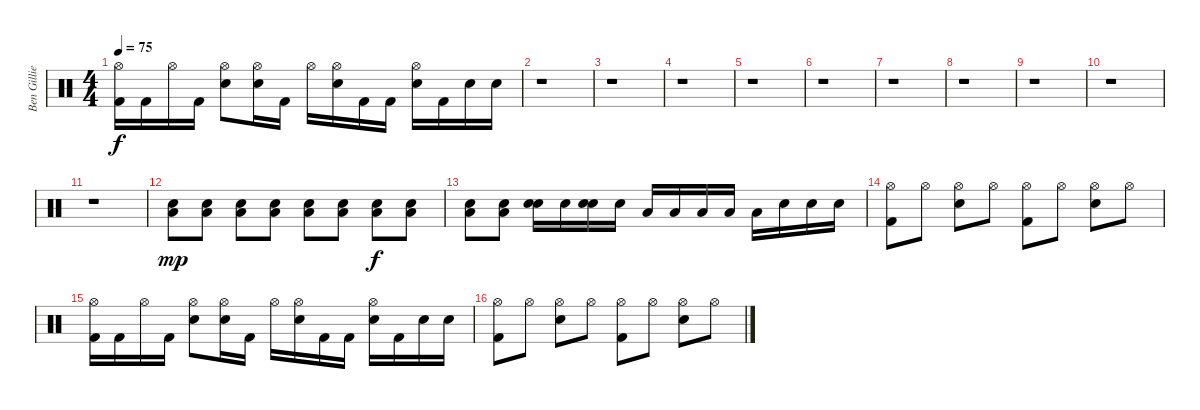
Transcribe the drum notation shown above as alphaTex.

\track ("Ben Gillies" "Ben Gillie") {instrument percussion}
\staff {score}
\articulation defaults
\ts (4 4)
\tempo 75
\clef neutral
\ks c
("Hi-Hat (open)" "Kick (hit) 2").16{dy f} "Kick (hit) 2".16 "Hi-Hat (open)".16 "Kick (hit) 2".16 ("Hi-Hat (open)" "Electric Snare (hit)").8 ("Hi-Hat (open)" "Electric Snare (hit)").16 "Kick (hit) 2".16 "Hi-Hat (open)".16 ("Hi-Hat (open)" "Electric Snare (hit)").16 "Kick (hit) 2".16 "Kick (hit) 2".16 ("Hi-Hat (open)" "Electric Snare (hit)").16 "Kick (hit) 2".16 "Electric Snare (hit)".16 "Electric Snare (hit)".16 |
r.1 |
r.1 |
r.1 |
r.1 |
r.1 |
r.1 |
r.1 |
r.1 |
r.1 |
r.1 |
("Low Floor Tom (hit)" "Electric Snare (hit)").8{dy mp} ("Low Floor Tom (hit)" "Electric Snare (hit)").8 ("Low Floor Tom (hit)" "Electric Snare (hit)").8 ("Low Floor Tom (hit)" "Electric Snare (hit)").8 ("Low Floor Tom (hit)" "Electric Snare (hit)").8 ("Low Floor Tom (hit)" "Electric Snare (hit)").8 ("Low Floor Tom (hit)" "Electric Snare (hit)").8{dy f} ("Low Floor Tom (hit)" "Electric Snare (hit)").8 |
("Low Floor Tom (hit)" "Electric Snare (hit)").8 ("Low Floor Tom (hit)" "Electric Snare (hit)").8 ("Electric Snare (hit)" "Electric Snare (hit)").16 "Electric Snare (hit)".16 ("Electric Snare (hit)" "Electric Snare (hit)").16 "Electric Snare (hit)".16 "Low Tom (hit)".16 "Low Tom (hit)".16 "Low Floor Tom (hit)".16 "Low Floor Tom (hit)".16 "Low Floor Tom (hit)".16 "Electric Snare (hit)".16 "Electric Snare (hit)".16 "Electric Snare (hit)".16 |
("Hi-Hat (open)" "Kick (hit) 2").8 "Hi-Hat (open)".8 ("Hi-Hat (open)" "Electric Snare (hit)").8 "Hi-Hat (open)".8 ("Hi-Hat (open)" "Kick (hit) 2").8 "Hi-Hat (open)".8 ("Hi-Hat (open)" "Electric Snare (hit)").8 "Hi-Hat (open)".8 |
("Hi-Hat (open)" "Kick (hit) 2").16 "Kick (hit) 2".16 "Hi-Hat (open)".16 "Kick (hit) 2".16 ("Hi-Hat (open)" "Electric Snare (hit)").8 ("Hi-Hat (open)" "Electric Snare (hit)").16 "Kick (hit) 2".16 "Hi-Hat (open)".16 ("Hi-Hat (open)" "Electric Snare (hit)").16 "Kick (hit) 2".16 "Kick (hit) 2".16 ("Hi-Hat (open)" "Electric Snare (hit)").16 "Kick (hit) 2".16 "Electric Snare (hit)".16 "Electric Snare (hit)".16 |
("Hi-Hat (open)" "Kick (hit) 2").8 "Hi-Hat (open)".8 ("Hi-Hat (open)" "Electric Snare (hit)").8 "Hi-Hat (open)".8 ("Hi-Hat (open)" "Kick (hit) 2").8 "Hi-Hat (open)".8 ("Hi-Hat (open)" "Electric Snare (hit)").8 "Hi-Hat (open)".8
